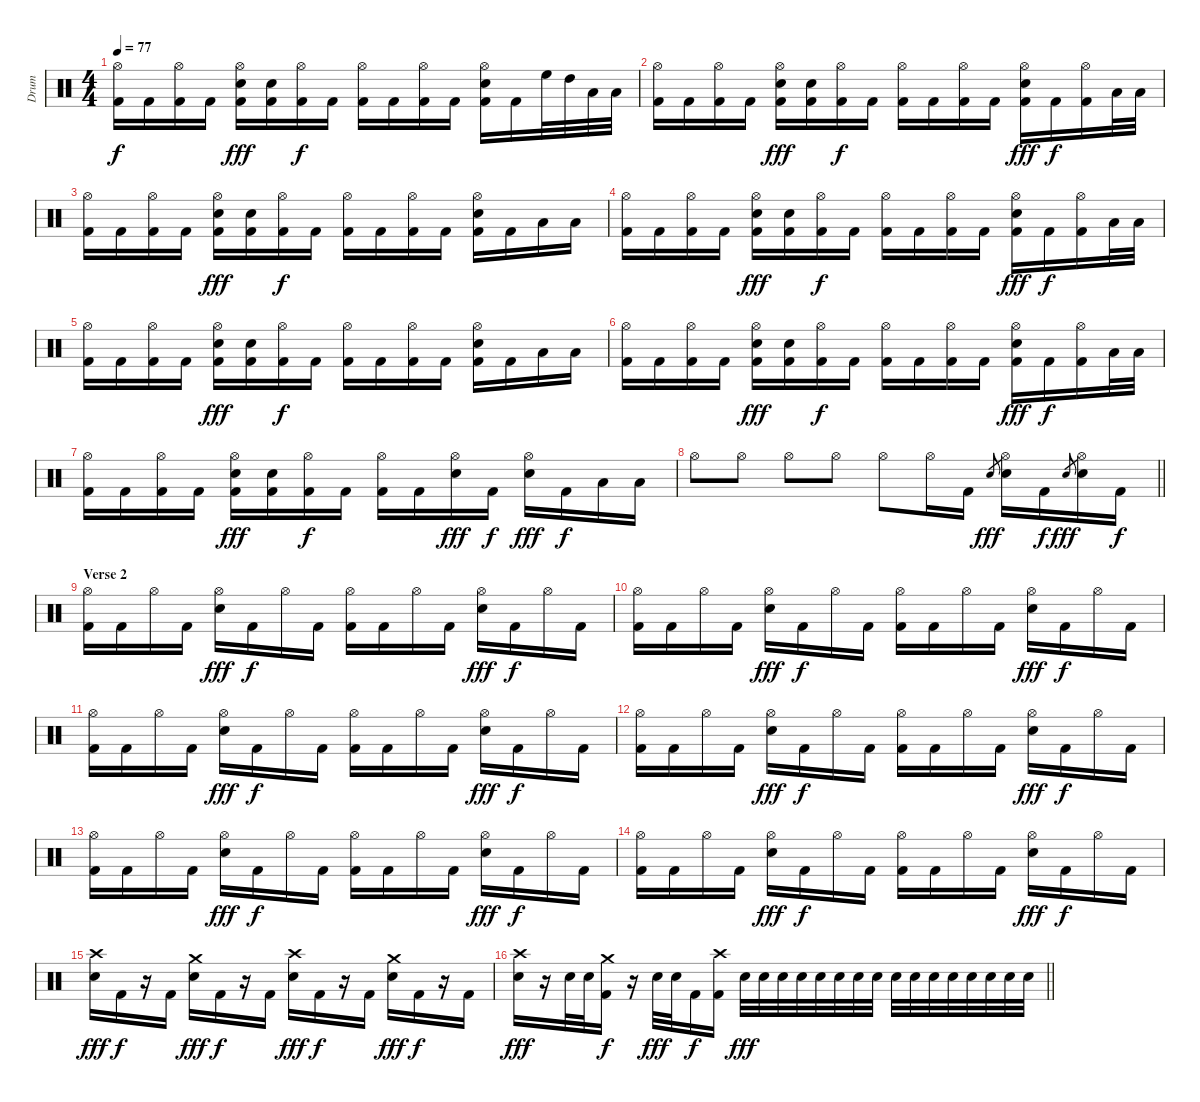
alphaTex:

\track ("Drum" "Drum") {instrument percussion}
\staff {score}
\articulation defaults
\ts (4 4)
\tempo 77
\clef neutral
\ks c
("Hi-Hat (open)" "Kick (hit) 2").16{dy f} "Kick (hit) 2".16 ("Hi-Hat (open)" "Kick (hit) 2").16 "Kick (hit) 2".16 ("Hi-Hat (open)" "Electric Snare (hit)" "Kick (hit) 2").16{dy fff} ("Electric Snare (hit)" "Kick (hit) 2").16 ("Hi-Hat (open)" "Kick (hit) 2").16{dy f} "Kick (hit) 2".16 ("Hi-Hat (open)" "Kick (hit) 2").16 "Kick (hit) 2".16 ("Hi-Hat (open)" "Kick (hit) 2").16 "Kick (hit) 2".16 ("Hi-Hat (open)" "Electric Snare (hit)" "Kick (hit) 2").16 "Kick (hit) 2".16 "High Floor Tom (hit)".32 "High Tom (hit)".32 "Low Tom (hit)".32 "Low Floor Tom (hit)".32 |
("Hi-Hat (open)" "Kick (hit) 2").16 "Kick (hit) 2".16 ("Hi-Hat (open)" "Kick (hit) 2").16 "Kick (hit) 2".16 ("Hi-Hat (open)" "Electric Snare (hit)" "Kick (hit) 2").16{dy fff} ("Electric Snare (hit)" "Kick (hit) 2").16 ("Hi-Hat (open)" "Kick (hit) 2").16{dy f} "Kick (hit) 2".16 ("Hi-Hat (open)" "Kick (hit) 2").16 "Kick (hit) 2".16 ("Hi-Hat (open)" "Kick (hit) 2").16 "Kick (hit) 2".16 ("Hi-Hat (open)" "Electric Snare (hit)" "Kick (hit) 2").16{dy fff} "Kick (hit) 2".16{dy f} ("Hi-Hat (open)" "Kick (hit) 2").16 "Low Tom (hit)".32 "Low Floor Tom (hit)".32 |
("Hi-Hat (open)" "Kick (hit) 2").16 "Kick (hit) 2".16 ("Hi-Hat (open)" "Kick (hit) 2").16 "Kick (hit) 2".16 ("Hi-Hat (open)" "Electric Snare (hit)" "Kick (hit) 2").16{dy fff} ("Electric Snare (hit)" "Kick (hit) 2").16 ("Hi-Hat (open)" "Kick (hit) 2").16{dy f} "Kick (hit) 2".16 ("Hi-Hat (open)" "Kick (hit) 2").16 "Kick (hit) 2".16 ("Hi-Hat (open)" "Kick (hit) 2").16 "Kick (hit) 2".16 ("Hi-Hat (open)" "Electric Snare (hit)" "Kick (hit) 2").16 "Kick (hit) 2".16 "Low Tom (hit)".16 "Low Floor Tom (hit)".16 |
("Hi-Hat (open)" "Kick (hit) 2").16 "Kick (hit) 2".16 ("Hi-Hat (open)" "Kick (hit) 2").16 "Kick (hit) 2".16 ("Hi-Hat (open)" "Electric Snare (hit)" "Kick (hit) 2").16{dy fff} ("Electric Snare (hit)" "Kick (hit) 2").16 ("Hi-Hat (open)" "Kick (hit) 2").16{dy f} "Kick (hit) 2".16 ("Hi-Hat (open)" "Kick (hit) 2").16 "Kick (hit) 2".16 ("Hi-Hat (open)" "Kick (hit) 2").16 "Kick (hit) 2".16 ("Hi-Hat (open)" "Electric Snare (hit)" "Kick (hit) 2").16{dy fff} "Kick (hit) 2".16{dy f} ("Hi-Hat (open)" "Kick (hit) 2").16 "Low Tom (hit)".32 "Low Floor Tom (hit)".32 |
("Hi-Hat (open)" "Kick (hit) 2").16 "Kick (hit) 2".16 ("Hi-Hat (open)" "Kick (hit) 2").16 "Kick (hit) 2".16 ("Hi-Hat (open)" "Electric Snare (hit)" "Kick (hit) 2").16{dy fff} ("Electric Snare (hit)" "Kick (hit) 2").16 ("Hi-Hat (open)" "Kick (hit) 2").16{dy f} "Kick (hit) 2".16 ("Hi-Hat (open)" "Kick (hit) 2").16 "Kick (hit) 2".16 ("Hi-Hat (open)" "Kick (hit) 2").16 "Kick (hit) 2".16 ("Hi-Hat (open)" "Electric Snare (hit)" "Kick (hit) 2").16 "Kick (hit) 2".16 "Low Tom (hit)".16 "Low Floor Tom (hit)".16 |
("Hi-Hat (open)" "Kick (hit) 2").16 "Kick (hit) 2".16 ("Hi-Hat (open)" "Kick (hit) 2").16 "Kick (hit) 2".16 ("Hi-Hat (open)" "Electric Snare (hit)" "Kick (hit) 2").16{dy fff} ("Electric Snare (hit)" "Kick (hit) 2").16 ("Hi-Hat (open)" "Kick (hit) 2").16{dy f} "Kick (hit) 2".16 ("Hi-Hat (open)" "Kick (hit) 2").16 "Kick (hit) 2".16 ("Hi-Hat (open)" "Kick (hit) 2").16 "Kick (hit) 2".16 ("Hi-Hat (open)" "Electric Snare (hit)" "Kick (hit) 2").16{dy fff} "Kick (hit) 2".16{dy f} ("Hi-Hat (open)" "Kick (hit) 2").16 "Low Tom (hit)".32 "Low Floor Tom (hit)".32 |
("Hi-Hat (open)" "Kick (hit) 2").16 "Kick (hit) 2".16 ("Hi-Hat (open)" "Kick (hit) 2").16 "Kick (hit) 2".16 ("Hi-Hat (open)" "Electric Snare (hit)" "Kick (hit) 2").16{dy fff} ("Electric Snare (hit)" "Kick (hit) 2").16 ("Hi-Hat (open)" "Kick (hit) 2").16{dy f} "Kick (hit) 2".16 ("Hi-Hat (open)" "Kick (hit) 2").16 "Kick (hit) 2".16 ("Hi-Hat (open)" "Electric Snare (hit)").16{dy fff} "Kick (hit) 2".16{dy f} ("Hi-Hat (open)" "Electric Snare (hit)").16{dy fff} "Kick (hit) 2".16{dy f} "Low Tom (hit)".16 "Low Floor Tom (hit)".16 |
\barLineRight lightlight "Hi-Hat (open)".8 "Hi-Hat (open)".8 "Hi-Hat (open)".8 "Hi-Hat (open)".8 "Hi-Hat (open)".8 "Hi-Hat (open)".16 "Kick (hit) 2".16 "Electric Snare (hit)".8{gr dy fff}
("Hi-Hat (open)" "Electric Snare (hit)").16 "Kick (hit) 2".16{dy f} "Electric Snare (hit)".8{gr dy fff} ("Hi-Hat (open)" "Electric Snare (hit)").16 "Kick (hit) 2".16{dy f} |
\section ("" "Verse 2")
("Hi-Hat (open)" "Kick (hit) 2").16 "Kick (hit) 2".16 "Hi-Hat (open)".16 "Kick (hit) 2".16 ("Hi-Hat (open)" "Electric Snare (hit)").16{dy fff} "Kick (hit) 2".16{dy f} "Hi-Hat (open)".16 "Kick (hit) 2".16 ("Hi-Hat (open)" "Kick (hit) 2").16 "Kick (hit) 2".16 "Hi-Hat (open)".16 "Kick (hit) 2".16 ("Hi-Hat (open)" "Electric Snare (hit)").16{dy fff} "Kick (hit) 2".16{dy f} "Hi-Hat (open)".16 "Kick (hit) 2".16 |
("Hi-Hat (open)" "Kick (hit) 2").16 "Kick (hit) 2".16 "Hi-Hat (open)".16 "Kick (hit) 2".16 ("Hi-Hat (open)" "Electric Snare (hit)").16{dy fff} "Kick (hit) 2".16{dy f} "Hi-Hat (open)".16 "Kick (hit) 2".16 ("Hi-Hat (open)" "Kick (hit) 2").16 "Kick (hit) 2".16 "Hi-Hat (open)".16 "Kick (hit) 2".16 ("Hi-Hat (open)" "Electric Snare (hit)").16{dy fff} "Kick (hit) 2".16{dy f} "Hi-Hat (open)".16 "Kick (hit) 2".16 |
("Hi-Hat (open)" "Kick (hit) 2").16 "Kick (hit) 2".16 "Hi-Hat (open)".16 "Kick (hit) 2".16 ("Hi-Hat (open)" "Electric Snare (hit)").16{dy fff} "Kick (hit) 2".16{dy f} "Hi-Hat (open)".16 "Kick (hit) 2".16 ("Hi-Hat (open)" "Kick (hit) 2").16 "Kick (hit) 2".16 "Hi-Hat (open)".16 "Kick (hit) 2".16 ("Hi-Hat (open)" "Electric Snare (hit)").16{dy fff} "Kick (hit) 2".16{dy f} "Hi-Hat (open)".16 "Kick (hit) 2".16 |
("Hi-Hat (open)" "Kick (hit) 2").16 "Kick (hit) 2".16 "Hi-Hat (open)".16 "Kick (hit) 2".16 ("Hi-Hat (open)" "Electric Snare (hit)").16{dy fff} "Kick (hit) 2".16{dy f} "Hi-Hat (open)".16 "Kick (hit) 2".16 ("Hi-Hat (open)" "Kick (hit) 2").16 "Kick (hit) 2".16 "Hi-Hat (open)".16 "Kick (hit) 2".16 ("Hi-Hat (open)" "Electric Snare (hit)").16{dy fff} "Kick (hit) 2".16{dy f} "Hi-Hat (open)".16 "Kick (hit) 2".16 |
("Hi-Hat (open)" "Kick (hit) 2").16 "Kick (hit) 2".16 "Hi-Hat (open)".16 "Kick (hit) 2".16 ("Hi-Hat (open)" "Electric Snare (hit)").16{dy fff} "Kick (hit) 2".16{dy f} "Hi-Hat (open)".16 "Kick (hit) 2".16 ("Hi-Hat (open)" "Kick (hit) 2").16 "Kick (hit) 2".16 "Hi-Hat (open)".16 "Kick (hit) 2".16 ("Hi-Hat (open)" "Electric Snare (hit)").16{dy fff} "Kick (hit) 2".16{dy f} "Hi-Hat (open)".16 "Kick (hit) 2".16 |
("Hi-Hat (open)" "Kick (hit) 2").16 "Kick (hit) 2".16 "Hi-Hat (open)".16 "Kick (hit) 2".16 ("Hi-Hat (open)" "Electric Snare (hit)").16{dy fff} "Kick (hit) 2".16{dy f} "Hi-Hat (open)".16 "Kick (hit) 2".16 ("Hi-Hat (open)" "Kick (hit) 2").16 "Kick (hit) 2".16 "Hi-Hat (open)".16 "Kick (hit) 2".16 ("Hi-Hat (open)" "Electric Snare (hit)").16{dy fff} "Kick (hit) 2".16{dy f} "Hi-Hat (open)".16 "Kick (hit) 2".16 |
("Crash high (hit)" "Electric Snare (hit)").16{dy fff} "Kick (hit) 2".16{dy f} r.16 "Kick (hit) 2".16 ("Crash medium (hit)" "Electric Snare (hit)").16{dy fff} "Kick (hit) 2".16{dy f} r.16 "Kick (hit) 2".16 ("Crash high (hit)" "Electric Snare (hit)").16{dy fff} "Kick (hit) 2".16{dy f} r.16 "Kick (hit) 2".16 ("Crash medium (hit)" "Electric Snare (hit)").16{dy fff} "Kick (hit) 2".16{dy f} r.16 "Kick (hit) 2".16 |
\barLineRight lightlight
("Crash high (hit)" "Electric Snare (hit)").16{dy fff} r.16 "Electric Snare (hit)".32 "Electric Snare (hit)".32 ("Crash medium (hit)" "Kick (hit) 2").16{dy f} r.16 "Electric Snare (hit)".32{dy fff} "Electric Snare (hit)".32 "Kick (hit) 2".16{dy f} ("Crash high (hit)" "Kick (hit) 2").16 "Electric Snare (hit)".32{dy fff} "Electric Snare (hit)".32 "Electric Snare (hit)".32 "Electric Snare (hit)".32 "Electric Snare (hit)".32 "Electric Snare (hit)".32 "Electric Snare (hit)".32 "Electric Snare (hit)".32 "Electric Snare (hit)".32 "Electric Snare (hit)".32 "Electric Snare (hit)".32 "Electric Snare (hit)".32 "Electric Snare (hit)".32 "Electric Snare (hit)".32 "Electric Snare (hit)".32 "Electric Snare (hit)".32
